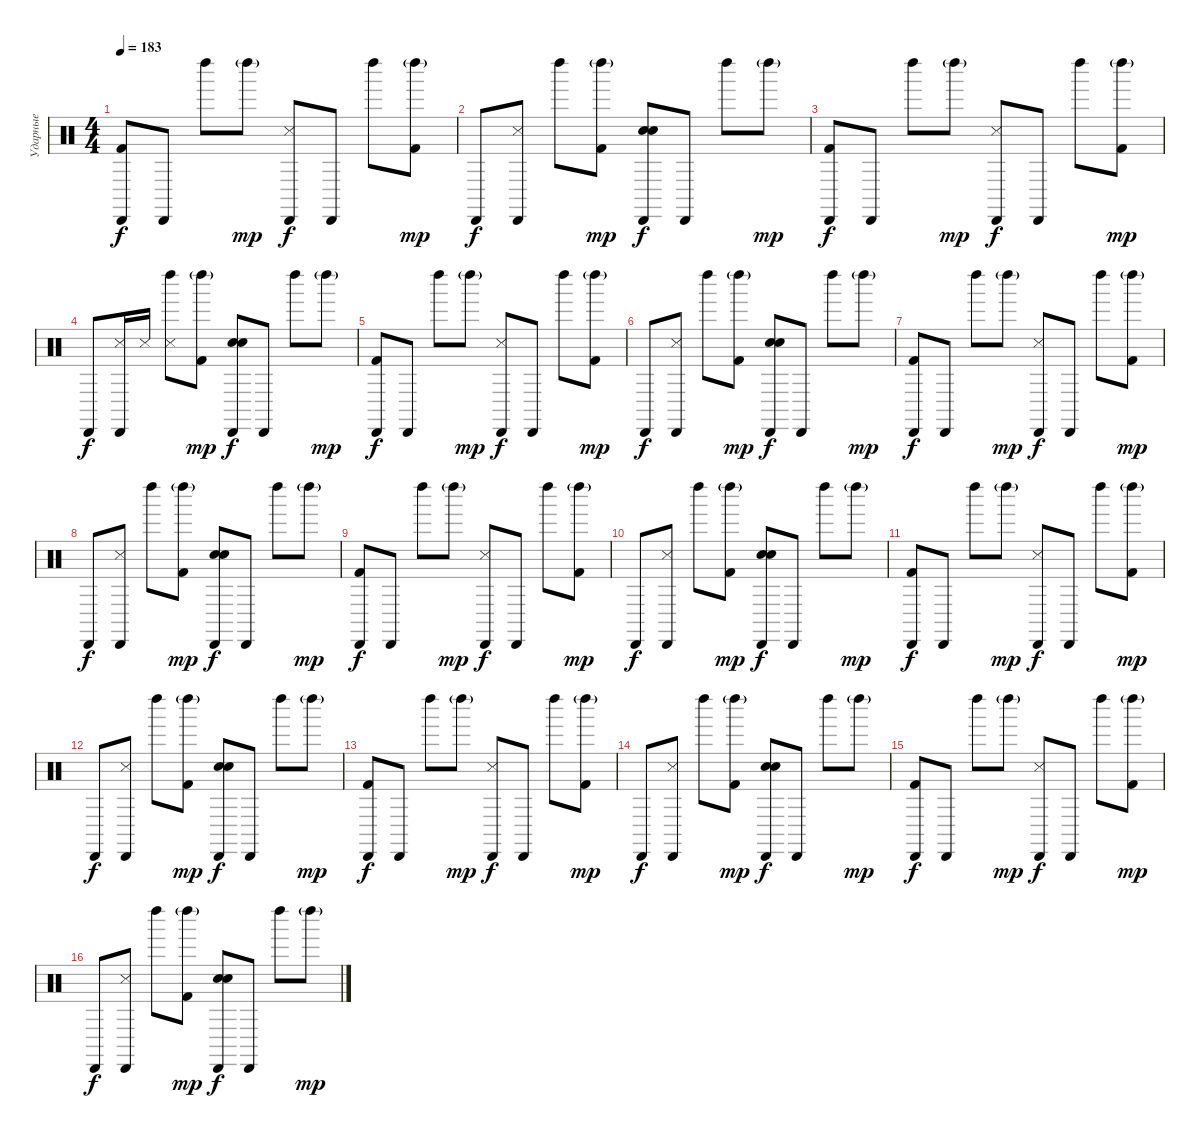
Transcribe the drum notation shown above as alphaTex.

\track ("Ударные" "Ударные") {instrument percussion}
\staff {score}
\articulation defaults
\ts (4 4)
\tempo 183
\clef neutral
\ks c
("Kick (hit) 2" "Cabasa (hit)").8{dy f} "Cabasa (hit)".8 "Left Maraca (hit)".8 "Left Maraca (hit)"{g}.8{dy mp} ("Snare (side stick) 3" "Cabasa (hit)").8{dy f} "Cabasa (hit)".8 "Left Maraca (hit)".8 ("Kick (hit) 2" "Left Maraca (hit)"{g}).8{dy mp} |
"Cabasa (hit)".8{dy f} ("Snare (side stick) 3" "Cabasa (hit)").8 "Left Maraca (hit)".8 ("Kick (hit) 2" "Left Maraca (hit)"{g}).8{dy mp} ("Hand Clap (hit)" "Snare (hit) 2" "Cabasa (hit)").8{dy f} "Cabasa (hit)".8 "Left Maraca (hit)".8 "Left Maraca (hit)"{g}.8{dy mp} |
("Kick (hit) 2" "Cabasa (hit)").8{dy f} "Cabasa (hit)".8 "Left Maraca (hit)".8 "Left Maraca (hit)"{g}.8{dy mp} ("Snare (side stick) 3" "Cabasa (hit)").8{dy f} "Cabasa (hit)".8 "Left Maraca (hit)".8 ("Kick (hit) 2" "Left Maraca (hit)"{g}).8{dy mp} |
"Cabasa (hit)".8{dy f} ("Snare (side stick) 3" "Cabasa (hit)").16 "Snare (side stick) 3".16 ("Snare (side stick) 3" "Left Maraca (hit)").8 ("Kick (hit) 2" "Left Maraca (hit)"{g}).8{dy mp} ("Hand Clap (hit)" "Snare (hit) 2" "Cabasa (hit)").8{dy f} "Cabasa (hit)".8 "Left Maraca (hit)".8 "Left Maraca (hit)"{g}.8{dy mp} |
("Kick (hit) 2" "Cabasa (hit)").8{dy f} "Cabasa (hit)".8 "Left Maraca (hit)".8 "Left Maraca (hit)"{g}.8{dy mp} ("Snare (side stick) 3" "Cabasa (hit)").8{dy f} "Cabasa (hit)".8 "Left Maraca (hit)".8 ("Kick (hit) 2" "Left Maraca (hit)"{g}).8{dy mp} |
"Cabasa (hit)".8{dy f} ("Snare (side stick) 3" "Cabasa (hit)").8 "Left Maraca (hit)".8 ("Kick (hit) 2" "Left Maraca (hit)"{g}).8{dy mp} ("Hand Clap (hit)" "Snare (hit) 2" "Cabasa (hit)").8{dy f} "Cabasa (hit)".8 "Left Maraca (hit)".8 "Left Maraca (hit)"{g}.8{dy mp} |
("Kick (hit) 2" "Cabasa (hit)").8{dy f} "Cabasa (hit)".8 "Left Maraca (hit)".8 "Left Maraca (hit)"{g}.8{dy mp} ("Snare (side stick) 3" "Cabasa (hit)").8{dy f} "Cabasa (hit)".8 "Left Maraca (hit)".8 ("Kick (hit) 2" "Left Maraca (hit)"{g}).8{dy mp} |
"Cabasa (hit)".8{dy f} ("Snare (side stick) 3" "Cabasa (hit)").8 "Left Maraca (hit)".8 ("Kick (hit) 2" "Left Maraca (hit)"{g}).8{dy mp} ("Hand Clap (hit)" "Snare (hit) 2" "Cabasa (hit)").8{dy f} "Cabasa (hit)".8 "Left Maraca (hit)".8 "Left Maraca (hit)"{g}.8{dy mp} |
("Kick (hit) 2" "Cabasa (hit)").8{dy f} "Cabasa (hit)".8 "Left Maraca (hit)".8 "Left Maraca (hit)"{g}.8{dy mp} ("Snare (side stick) 3" "Cabasa (hit)").8{dy f} "Cabasa (hit)".8 "Left Maraca (hit)".8 ("Kick (hit) 2" "Left Maraca (hit)"{g}).8{dy mp} |
"Cabasa (hit)".8{dy f} ("Snare (side stick) 3" "Cabasa (hit)").8 "Left Maraca (hit)".8 ("Kick (hit) 2" "Left Maraca (hit)"{g}).8{dy mp} ("Hand Clap (hit)" "Snare (hit) 2" "Cabasa (hit)").8{dy f} "Cabasa (hit)".8 "Left Maraca (hit)".8 "Left Maraca (hit)"{g}.8{dy mp} |
("Kick (hit) 2" "Cabasa (hit)").8{dy f} "Cabasa (hit)".8 "Left Maraca (hit)".8 "Left Maraca (hit)"{g}.8{dy mp} ("Snare (side stick) 3" "Cabasa (hit)").8{dy f} "Cabasa (hit)".8 "Left Maraca (hit)".8 ("Kick (hit) 2" "Left Maraca (hit)"{g}).8{dy mp} |
"Cabasa (hit)".8{dy f} ("Snare (side stick) 3" "Cabasa (hit)").8 "Left Maraca (hit)".8 ("Kick (hit) 2" "Left Maraca (hit)"{g}).8{dy mp} ("Hand Clap (hit)" "Snare (hit) 2" "Cabasa (hit)").8{dy f} "Cabasa (hit)".8 "Left Maraca (hit)".8 "Left Maraca (hit)"{g}.8{dy mp} |
("Kick (hit) 2" "Cabasa (hit)").8{dy f} "Cabasa (hit)".8 "Left Maraca (hit)".8 "Left Maraca (hit)"{g}.8{dy mp} ("Snare (side stick) 3" "Cabasa (hit)").8{dy f} "Cabasa (hit)".8 "Left Maraca (hit)".8 ("Kick (hit) 2" "Left Maraca (hit)"{g}).8{dy mp} |
"Cabasa (hit)".8{dy f} ("Snare (side stick) 3" "Cabasa (hit)").8 "Left Maraca (hit)".8 ("Kick (hit) 2" "Left Maraca (hit)"{g}).8{dy mp} ("Hand Clap (hit)" "Snare (hit) 2" "Cabasa (hit)").8{dy f} "Cabasa (hit)".8 "Left Maraca (hit)".8 "Left Maraca (hit)"{g}.8{dy mp} |
("Kick (hit) 2" "Cabasa (hit)").8{dy f} "Cabasa (hit)".8 "Left Maraca (hit)".8 "Left Maraca (hit)"{g}.8{dy mp} ("Snare (side stick) 3" "Cabasa (hit)").8{dy f} "Cabasa (hit)".8 "Left Maraca (hit)".8 ("Kick (hit) 2" "Left Maraca (hit)"{g}).8{dy mp} |
"Cabasa (hit)".8{dy f} ("Snare (side stick) 3" "Cabasa (hit)").8 "Left Maraca (hit)".8 ("Kick (hit) 2" "Left Maraca (hit)"{g}).8{dy mp} ("Hand Clap (hit)" "Snare (hit) 2" "Cabasa (hit)").8{dy f} "Cabasa (hit)".8 "Left Maraca (hit)".8 "Left Maraca (hit)"{g}.8{dy mp}
